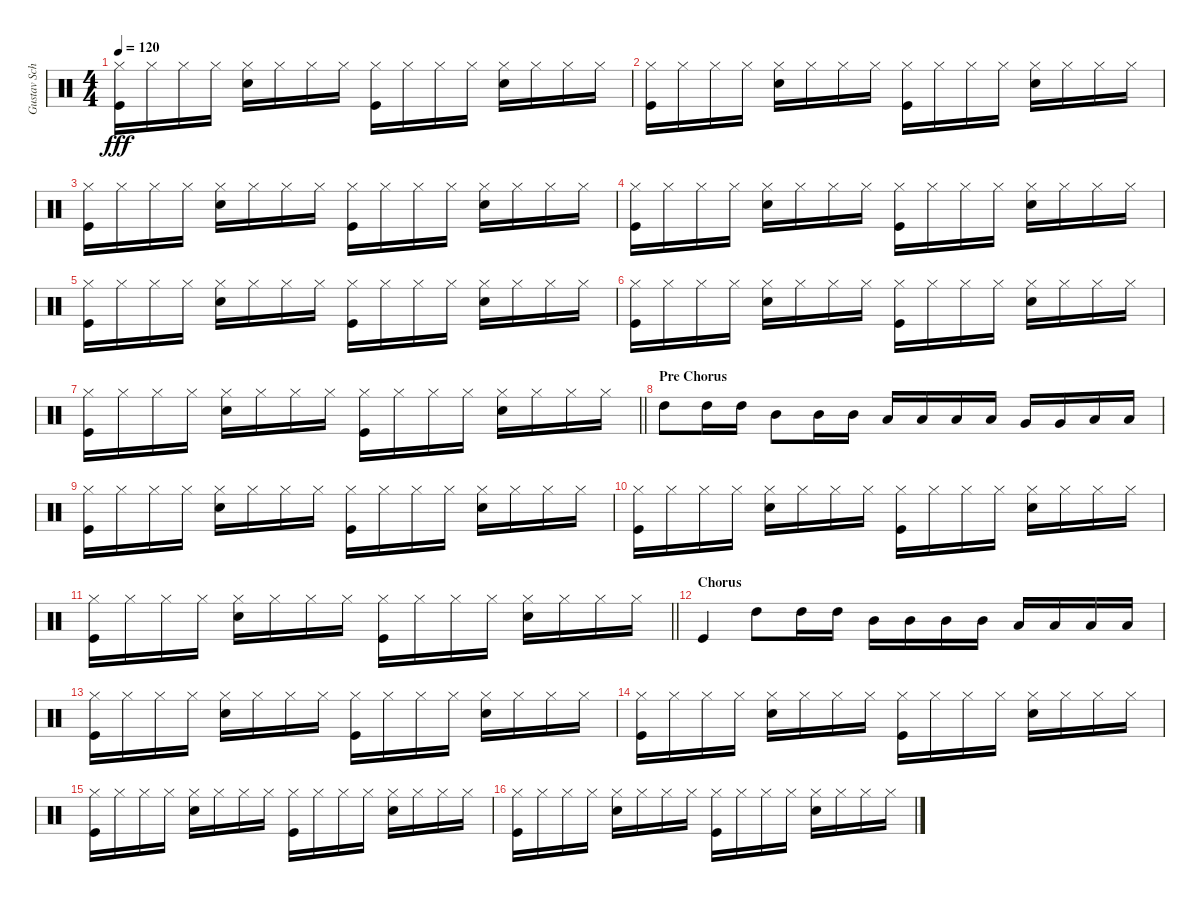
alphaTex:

\track ("Gustav Schäfer" "Gustav Sch") {instrument percussion}
\staff {score}
\articulation defaults
\ts (4 4)
\tempo 120
\clef neutral
\ks c
("Hi-Hat (closed)" "Kick (hit)").16{dy fff} "Hi-Hat (closed)".16 "Hi-Hat (closed)".16 "Hi-Hat (closed)".16 ("Hi-Hat (closed)" "Snare (hit) 2").16 "Hi-Hat (closed)".16 "Hi-Hat (closed)".16 "Hi-Hat (closed)".16 ("Hi-Hat (closed)" "Kick (hit)").16 "Hi-Hat (closed)".16 "Hi-Hat (closed)".16 "Hi-Hat (closed)".16 ("Hi-Hat (closed)" "Snare (hit) 2").16 "Hi-Hat (closed)".16 "Hi-Hat (closed)".16 "Hi-Hat (closed)".16 |
("Hi-Hat (closed)" "Kick (hit)").16 "Hi-Hat (closed)".16 "Hi-Hat (closed)".16 "Hi-Hat (closed)".16 ("Hi-Hat (closed)" "Snare (hit) 2").16 "Hi-Hat (closed)".16 "Hi-Hat (closed)".16 "Hi-Hat (closed)".16 ("Hi-Hat (closed)" "Kick (hit)").16 "Hi-Hat (closed)".16 "Hi-Hat (closed)".16 "Hi-Hat (closed)".16 ("Hi-Hat (closed)" "Snare (hit) 2").16 "Hi-Hat (closed)".16 "Hi-Hat (closed)".16 "Hi-Hat (closed)".16 |
("Hi-Hat (closed)" "Kick (hit)").16 "Hi-Hat (closed)".16 "Hi-Hat (closed)".16 "Hi-Hat (closed)".16 ("Hi-Hat (closed)" "Snare (hit) 2").16 "Hi-Hat (closed)".16 "Hi-Hat (closed)".16 "Hi-Hat (closed)".16 ("Hi-Hat (closed)" "Kick (hit)").16 "Hi-Hat (closed)".16 "Hi-Hat (closed)".16 "Hi-Hat (closed)".16 ("Hi-Hat (closed)" "Snare (hit) 2").16 "Hi-Hat (closed)".16 "Hi-Hat (closed)".16 "Hi-Hat (closed)".16 |
("Hi-Hat (closed)" "Kick (hit)").16 "Hi-Hat (closed)".16 "Hi-Hat (closed)".16 "Hi-Hat (closed)".16 ("Hi-Hat (closed)" "Snare (hit) 2").16 "Hi-Hat (closed)".16 "Hi-Hat (closed)".16 "Hi-Hat (closed)".16 ("Hi-Hat (closed)" "Kick (hit)").16 "Hi-Hat (closed)".16 "Hi-Hat (closed)".16 "Hi-Hat (closed)".16 ("Hi-Hat (closed)" "Snare (hit) 2").16 "Hi-Hat (closed)".16 "Hi-Hat (closed)".16 "Hi-Hat (closed)".16 |
("Hi-Hat (closed)" "Kick (hit)").16 "Hi-Hat (closed)".16 "Hi-Hat (closed)".16 "Hi-Hat (closed)".16 ("Hi-Hat (closed)" "Snare (hit) 2").16 "Hi-Hat (closed)".16 "Hi-Hat (closed)".16 "Hi-Hat (closed)".16 ("Hi-Hat (closed)" "Kick (hit)").16 "Hi-Hat (closed)".16 "Hi-Hat (closed)".16 "Hi-Hat (closed)".16 ("Hi-Hat (closed)" "Snare (hit) 2").16 "Hi-Hat (closed)".16 "Hi-Hat (closed)".16 "Hi-Hat (closed)".16 |
("Hi-Hat (closed)" "Kick (hit)").16 "Hi-Hat (closed)".16 "Hi-Hat (closed)".16 "Hi-Hat (closed)".16 ("Hi-Hat (closed)" "Snare (hit) 2").16 "Hi-Hat (closed)".16 "Hi-Hat (closed)".16 "Hi-Hat (closed)".16 ("Hi-Hat (closed)" "Kick (hit)").16 "Hi-Hat (closed)".16 "Hi-Hat (closed)".16 "Hi-Hat (closed)".16 ("Hi-Hat (closed)" "Snare (hit) 2").16 "Hi-Hat (closed)".16 "Hi-Hat (closed)".16 "Hi-Hat (closed)".16 |
\barLineRight lightlight
("Hi-Hat (closed)" "Kick (hit)").16 "Hi-Hat (closed)".16 "Hi-Hat (closed)".16 "Hi-Hat (closed)".16 ("Hi-Hat (closed)" "Snare (hit) 2").16 "Hi-Hat (closed)".16 "Hi-Hat (closed)".16 "Hi-Hat (closed)".16 ("Hi-Hat (closed)" "Kick (hit)").16 "Hi-Hat (closed)".16 "Hi-Hat (closed)".16 "Hi-Hat (closed)".16 ("Hi-Hat (closed)" "Snare (hit) 2").16 "Hi-Hat (closed)".16 "Hi-Hat (closed)".16 "Hi-Hat (closed)".16 |
\section ("" "Pre Chorus")
"High Tom (hit)".8 "High Tom (hit)".16 "High Tom (hit)".16 "Mid Tom (hit)".8 "Mid Tom (hit)".16 "Mid Tom (hit)".16 "Low Tom (hit)".16 "Low Tom (hit)".16 "Low Tom (hit)".16 "Low Tom (hit)".16 "Very Low Tom (hit)".16 "Very Low Tom (hit)".16 "Low Floor Tom (hit)".16 "Low Floor Tom (hit)".16 |
("Hi-Hat (closed)" "Kick (hit)").16 "Hi-Hat (closed)".16 "Hi-Hat (closed)".16 "Hi-Hat (closed)".16 ("Hi-Hat (closed)" "Snare (hit) 2").16 "Hi-Hat (closed)".16 "Hi-Hat (closed)".16 "Hi-Hat (closed)".16 ("Hi-Hat (closed)" "Kick (hit)").16 "Hi-Hat (closed)".16 "Hi-Hat (closed)".16 "Hi-Hat (closed)".16 ("Hi-Hat (closed)" "Snare (hit) 2").16 "Hi-Hat (closed)".16 "Hi-Hat (closed)".16 "Hi-Hat (closed)".16 |
("Hi-Hat (closed)" "Kick (hit)").16 "Hi-Hat (closed)".16 "Hi-Hat (closed)".16 "Hi-Hat (closed)".16 ("Hi-Hat (closed)" "Snare (hit) 2").16 "Hi-Hat (closed)".16 "Hi-Hat (closed)".16 "Hi-Hat (closed)".16 ("Hi-Hat (closed)" "Kick (hit)").16 "Hi-Hat (closed)".16 "Hi-Hat (closed)".16 "Hi-Hat (closed)".16 ("Hi-Hat (closed)" "Snare (hit) 2").16 "Hi-Hat (closed)".16 "Hi-Hat (closed)".16 "Hi-Hat (closed)".16 |
\barLineRight lightlight
("Hi-Hat (closed)" "Kick (hit)").16 "Hi-Hat (closed)".16 "Hi-Hat (closed)".16 "Hi-Hat (closed)".16 ("Hi-Hat (closed)" "Snare (hit) 2").16 "Hi-Hat (closed)".16 "Hi-Hat (closed)".16 "Hi-Hat (closed)".16 ("Hi-Hat (closed)" "Kick (hit)").16 "Hi-Hat (closed)".16 "Hi-Hat (closed)".16 "Hi-Hat (closed)".16 ("Hi-Hat (closed)" "Snare (hit) 2").16 "Hi-Hat (closed)".16 "Hi-Hat (closed)".16 "Hi-Hat (closed)".16 |
\section ("" "Chorus")
"Kick (hit)".4 "High Tom (hit)".8 "High Tom (hit)".16 "High Tom (hit)".16 "Mid Tom (hit)".16 "Mid Tom (hit)".16 "Mid Tom (hit)".16 "Mid Tom (hit)".16 "Low Tom (hit)".16 "Low Tom (hit)".16 "Low Tom (hit)".16 "Low Tom (hit)".16 |
("Hi-Hat (closed)" "Kick (hit)").16 "Hi-Hat (closed)".16 "Hi-Hat (closed)".16 "Hi-Hat (closed)".16 ("Hi-Hat (closed)" "Snare (hit) 2").16 "Hi-Hat (closed)".16 "Hi-Hat (closed)".16 "Hi-Hat (closed)".16 ("Hi-Hat (closed)" "Kick (hit)").16 "Hi-Hat (closed)".16 "Hi-Hat (closed)".16 "Hi-Hat (closed)".16 ("Hi-Hat (closed)" "Snare (hit) 2").16 "Hi-Hat (closed)".16 "Hi-Hat (closed)".16 "Hi-Hat (closed)".16 |
("Hi-Hat (closed)" "Kick (hit)").16 "Hi-Hat (closed)".16 "Hi-Hat (closed)".16 "Hi-Hat (closed)".16 ("Hi-Hat (closed)" "Snare (hit) 2").16 "Hi-Hat (closed)".16 "Hi-Hat (closed)".16 "Hi-Hat (closed)".16 ("Hi-Hat (closed)" "Kick (hit)").16 "Hi-Hat (closed)".16 "Hi-Hat (closed)".16 "Hi-Hat (closed)".16 ("Hi-Hat (closed)" "Snare (hit) 2").16 "Hi-Hat (closed)".16 "Hi-Hat (closed)".16 "Hi-Hat (closed)".16 |
("Hi-Hat (closed)" "Kick (hit)").16 "Hi-Hat (closed)".16 "Hi-Hat (closed)".16 "Hi-Hat (closed)".16 ("Hi-Hat (closed)" "Snare (hit) 2").16 "Hi-Hat (closed)".16 "Hi-Hat (closed)".16 "Hi-Hat (closed)".16 ("Hi-Hat (closed)" "Kick (hit)").16 "Hi-Hat (closed)".16 "Hi-Hat (closed)".16 "Hi-Hat (closed)".16 ("Hi-Hat (closed)" "Snare (hit) 2").16 "Hi-Hat (closed)".16 "Hi-Hat (closed)".16 "Hi-Hat (closed)".16 |
("Hi-Hat (closed)" "Kick (hit)").16 "Hi-Hat (closed)".16 "Hi-Hat (closed)".16 "Hi-Hat (closed)".16 ("Hi-Hat (closed)" "Snare (hit) 2").16 "Hi-Hat (closed)".16 "Hi-Hat (closed)".16 "Hi-Hat (closed)".16 ("Hi-Hat (closed)" "Kick (hit)").16 "Hi-Hat (closed)".16 "Hi-Hat (closed)".16 "Hi-Hat (closed)".16 ("Hi-Hat (closed)" "Snare (hit) 2").16 "Hi-Hat (closed)".16 "Hi-Hat (closed)".16 "Hi-Hat (closed)".16
